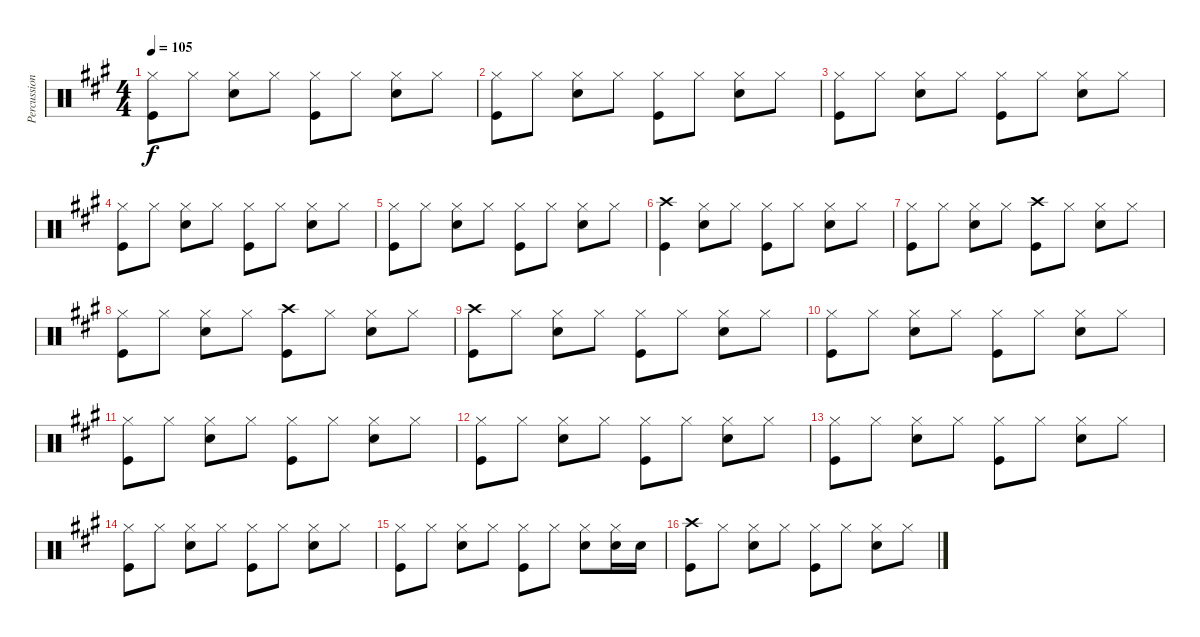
\track ("Percussion" "Percussion") {instrument percussion}
\staff {score}
\articulation defaults
\ts (4 4)
\tempo 105
\clef neutral
\ks a
("Hi-Hat (closed)" "Kick (hit)").8{dy f} "Hi-Hat (closed)".8 ("Hi-Hat (closed)" "Snare (hit) 2").8 "Hi-Hat (closed)".8 ("Hi-Hat (closed)" "Kick (hit)").8 "Hi-Hat (closed)".8 ("Hi-Hat (closed)" "Snare (hit) 2").8 "Hi-Hat (closed)".8 |
("Hi-Hat (closed)" "Kick (hit)").8 "Hi-Hat (closed)".8 ("Hi-Hat (closed)" "Snare (hit) 2").8 "Hi-Hat (closed)".8 ("Hi-Hat (closed)" "Kick (hit)").8 "Hi-Hat (closed)".8 ("Hi-Hat (closed)" "Snare (hit) 2").8 "Hi-Hat (closed)".8 |
("Hi-Hat (closed)" "Kick (hit)").8 "Hi-Hat (closed)".8 ("Hi-Hat (closed)" "Snare (hit) 2").8 "Hi-Hat (closed)".8 ("Hi-Hat (closed)" "Kick (hit)").8 "Hi-Hat (closed)".8 ("Hi-Hat (closed)" "Snare (hit) 2").8 "Hi-Hat (closed)".8 |
("Hi-Hat (closed)" "Kick (hit)").8 "Hi-Hat (closed)".8 ("Hi-Hat (closed)" "Snare (hit) 2").8 "Hi-Hat (closed)".8 ("Hi-Hat (closed)" "Kick (hit)").8 "Hi-Hat (closed)".8 ("Hi-Hat (closed)" "Snare (hit) 2").8 "Hi-Hat (closed)".8 |
("Hi-Hat (closed)" "Kick (hit)").8 "Hi-Hat (closed)".8 ("Hi-Hat (closed)" "Snare (hit) 2").8 "Hi-Hat (closed)".8 ("Hi-Hat (closed)" "Kick (hit)").8 "Hi-Hat (closed)".8 ("Hi-Hat (closed)" "Snare (hit) 2").8 "Hi-Hat (closed)".8 |
("Crash high (hit)" "Kick (hit)").4 ("Hi-Hat (closed)" "Snare (hit) 2").8 "Hi-Hat (closed)".8 ("Hi-Hat (closed)" "Kick (hit)").8 "Hi-Hat (closed)".8 ("Hi-Hat (closed)" "Snare (hit) 2").8 "Hi-Hat (closed)".8 |
("Hi-Hat (closed)" "Kick (hit)").8 "Hi-Hat (closed)".8 ("Hi-Hat (closed)" "Snare (hit) 2").8 "Hi-Hat (closed)".8 ("Crash high (hit)" "Kick (hit)").8 "Hi-Hat (closed)".8 ("Hi-Hat (closed)" "Snare (hit) 2").8 "Hi-Hat (closed)".8 |
("Hi-Hat (closed)" "Kick (hit)").8 "Hi-Hat (closed)".8 ("Hi-Hat (closed)" "Snare (hit) 2").8 "Hi-Hat (closed)".8 ("Crash high (hit)" "Kick (hit)").8 "Hi-Hat (closed)".8 ("Hi-Hat (closed)" "Snare (hit) 2").8 "Hi-Hat (closed)".8 |
("Crash high (hit)" "Kick (hit)").8 "Hi-Hat (closed)".8 ("Hi-Hat (closed)" "Snare (hit) 2").8 "Hi-Hat (closed)".8 ("Hi-Hat (closed)" "Kick (hit)").8 "Hi-Hat (closed)".8 ("Hi-Hat (closed)" "Snare (hit) 2").8 "Hi-Hat (closed)".8 |
("Hi-Hat (closed)" "Kick (hit)").8 "Hi-Hat (closed)".8 ("Hi-Hat (closed)" "Snare (hit) 2").8 "Hi-Hat (closed)".8 ("Hi-Hat (closed)" "Kick (hit)").8 "Hi-Hat (closed)".8 ("Hi-Hat (closed)" "Snare (hit) 2").8 "Hi-Hat (closed)".8 |
("Hi-Hat (closed)" "Kick (hit)").8 "Hi-Hat (closed)".8 ("Hi-Hat (closed)" "Snare (hit) 2").8 "Hi-Hat (closed)".8 ("Hi-Hat (closed)" "Kick (hit)").8 "Hi-Hat (closed)".8 ("Hi-Hat (closed)" "Snare (hit) 2").8 "Hi-Hat (closed)".8 |
("Hi-Hat (closed)" "Kick (hit)").8 "Hi-Hat (closed)".8 ("Hi-Hat (closed)" "Snare (hit) 2").8 "Hi-Hat (closed)".8 ("Hi-Hat (closed)" "Kick (hit)").8 "Hi-Hat (closed)".8 ("Hi-Hat (closed)" "Snare (hit) 2").8 "Hi-Hat (closed)".8 |
("Hi-Hat (closed)" "Kick (hit)").8 "Hi-Hat (closed)".8 ("Hi-Hat (closed)" "Snare (hit) 2").8 "Hi-Hat (closed)".8 ("Hi-Hat (closed)" "Kick (hit)").8 "Hi-Hat (closed)".8 ("Hi-Hat (closed)" "Snare (hit) 2").8 "Hi-Hat (closed)".8 |
("Hi-Hat (closed)" "Kick (hit)").8 "Hi-Hat (closed)".8 ("Hi-Hat (closed)" "Snare (hit) 2").8 "Hi-Hat (closed)".8 ("Hi-Hat (closed)" "Kick (hit)").8 "Hi-Hat (closed)".8 ("Hi-Hat (closed)" "Snare (hit) 2").8 "Hi-Hat (closed)".8 |
("Hi-Hat (closed)" "Kick (hit)").8 "Hi-Hat (closed)".8 ("Hi-Hat (closed)" "Snare (hit) 2").8 "Hi-Hat (closed)".8 ("Hi-Hat (closed)" "Kick (hit)").8 "Hi-Hat (closed)".8 ("Hi-Hat (closed)" "Snare (hit) 2").8 ("Hi-Hat (closed)" "Snare (hit) 2").16 "Snare (hit) 2".16 |
("Crash high (hit)" "Kick (hit)").8 "Hi-Hat (closed)".8 ("Hi-Hat (closed)" "Snare (hit) 2").8 "Hi-Hat (closed)".8 ("Hi-Hat (closed)" "Kick (hit)").8 "Hi-Hat (closed)".8 ("Hi-Hat (closed)" "Snare (hit) 2").8 "Hi-Hat (closed)".8
